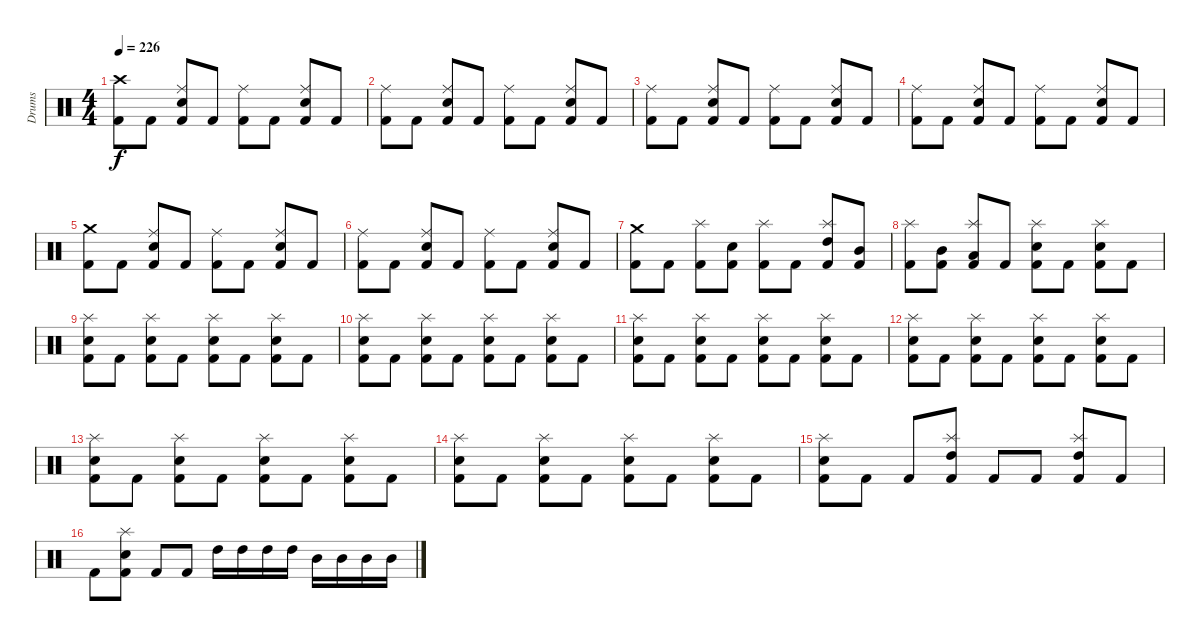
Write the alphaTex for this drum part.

\track ("Drums" "Drums") {instrument percussion}
\staff {score}
\articulation defaults
\ts (4 4)
\tempo 226
\clef neutral
\ks c
("Crash high (hit)" "Kick (hit) 2").8{dy f} "Kick (hit) 2".8 ("Ride (middle)" "Snare (hit) 2" "Kick (hit) 2").8 "Kick (hit) 2".8 ("Ride (middle)" "Kick (hit) 2").8 "Kick (hit) 2".8 ("Ride (middle)" "Snare (hit) 2" "Kick (hit) 2").8 "Kick (hit) 2".8 |
("Ride (middle)" "Kick (hit) 2").8 "Kick (hit) 2".8 ("Ride (middle)" "Snare (hit) 2" "Kick (hit) 2").8 "Kick (hit) 2".8 ("Ride (middle)" "Kick (hit) 2").8 "Kick (hit) 2".8 ("Ride (middle)" "Snare (hit) 2" "Kick (hit) 2").8 "Kick (hit) 2".8 |
("Ride (middle)" "Kick (hit) 2").8 "Kick (hit) 2".8 ("Ride (middle)" "Snare (hit) 2" "Kick (hit) 2").8 "Kick (hit) 2".8 ("Ride (middle)" "Kick (hit) 2").8 "Kick (hit) 2".8 ("Ride (middle)" "Snare (hit) 2" "Kick (hit) 2").8 "Kick (hit) 2".8 |
("Ride (middle)" "Kick (hit) 2").8 "Kick (hit) 2".8 ("Ride (middle)" "Snare (hit) 2" "Kick (hit) 2").8 "Kick (hit) 2".8 ("Ride (middle)" "Kick (hit) 2").8 "Kick (hit) 2".8 ("Ride (middle)" "Snare (hit) 2" "Kick (hit) 2").8 "Kick (hit) 2".8 |
("Crash medium (hit)" "Kick (hit) 2").8 "Kick (hit) 2".8 ("Ride (middle)" "Snare (hit) 2" "Kick (hit) 2").8 "Kick (hit) 2".8 ("Ride (middle)" "Kick (hit) 2").8 "Kick (hit) 2".8 ("Ride (middle)" "Snare (hit) 2" "Kick (hit) 2").8 "Kick (hit) 2".8 |
("Ride (middle)" "Kick (hit) 2").8 "Kick (hit) 2".8 ("Ride (middle)" "Snare (hit) 2" "Kick (hit) 2").8 "Kick (hit) 2".8 ("Ride (middle)" "Kick (hit) 2").8 "Kick (hit) 2".8 ("Ride (middle)" "Snare (hit) 2" "Kick (hit) 2").8 "Kick (hit) 2".8 |
("Crash medium (hit)" "Kick (hit) 2").8 "Kick (hit) 2".8 ("Splash (hit)" "Kick (hit) 2").8 ("Snare (hit) 2" "Kick (hit) 2").8 ("Splash (hit)" "Kick (hit) 2").8 "Kick (hit) 2".8 ("Splash (hit)" "High Tom (hit)" "Kick (hit) 2").8 ("Mid Tom (hit)" "Kick (hit) 2").8 |
("Splash (hit)" "Kick (hit) 2").8 ("Mid Tom (hit)" "Kick (hit) 2").8 ("Splash (hit)" "Low Tom (hit)" "Kick (hit) 2").8 "Kick (hit) 2".8 ("Splash (hit)" "Snare (hit) 2" "Kick (hit) 2").8 "Kick (hit) 2".8 ("Splash (hit)" "Snare (hit) 2" "Kick (hit) 2").8 "Kick (hit) 2".8 |
("Splash (hit)" "Snare (hit) 2" "Kick (hit) 2").8 "Kick (hit) 2".8 ("Splash (hit)" "Snare (hit) 2" "Kick (hit) 2").8 "Kick (hit) 2".8 ("Splash (hit)" "Snare (hit) 2" "Kick (hit) 2").8 "Kick (hit) 2".8 ("Splash (hit)" "Snare (hit) 2" "Kick (hit) 2").8 "Kick (hit) 2".8 |
("Splash (hit)" "Snare (hit) 2" "Kick (hit) 2").8 "Kick (hit) 2".8 ("Splash (hit)" "Snare (hit) 2" "Kick (hit) 2").8 "Kick (hit) 2".8 ("Splash (hit)" "Snare (hit) 2" "Kick (hit) 2").8 "Kick (hit) 2".8 ("Splash (hit)" "Snare (hit) 2" "Kick (hit) 2").8 "Kick (hit) 2".8 |
("Splash (hit)" "Snare (hit) 2" "Kick (hit) 2").8 "Kick (hit) 2".8 ("Splash (hit)" "Snare (hit) 2" "Kick (hit) 2").8 "Kick (hit) 2".8 ("Splash (hit)" "Snare (hit) 2" "Kick (hit) 2").8 "Kick (hit) 2".8 ("Splash (hit)" "Snare (hit) 2" "Kick (hit) 2").8 "Kick (hit) 2".8 |
("Splash (hit)" "Snare (hit) 2" "Kick (hit) 2").8 "Kick (hit) 2".8 ("Splash (hit)" "Snare (hit) 2" "Kick (hit) 2").8 "Kick (hit) 2".8 ("Splash (hit)" "Snare (hit) 2" "Kick (hit) 2").8 "Kick (hit) 2".8 ("Splash (hit)" "Snare (hit) 2" "Kick (hit) 2").8 "Kick (hit) 2".8 |
("Splash (hit)" "Snare (hit) 2" "Kick (hit) 2").8 "Kick (hit) 2".8 ("Splash (hit)" "Snare (hit) 2" "Kick (hit) 2").8 "Kick (hit) 2".8 ("Splash (hit)" "Snare (hit) 2" "Kick (hit) 2").8 "Kick (hit) 2".8 ("Splash (hit)" "Snare (hit) 2" "Kick (hit) 2").8 "Kick (hit) 2".8 |
("Splash (hit)" "Snare (hit) 2" "Kick (hit) 2").8 "Kick (hit) 2".8 ("Splash (hit)" "Snare (hit) 2" "Kick (hit) 2").8 "Kick (hit) 2".8 ("Splash (hit)" "Snare (hit) 2" "Kick (hit) 2").8 "Kick (hit) 2".8 ("Splash (hit)" "Snare (hit) 2" "Kick (hit) 2").8 "Kick (hit) 2".8 |
("Splash (hit)" "Snare (hit) 2" "Kick (hit) 2").8 "Kick (hit) 2".8 "Kick (hit) 2".8 ("Splash (hit)" "High Tom (hit)" "Kick (hit) 2").8 "Kick (hit) 2".8 "Kick (hit) 2".8 ("Splash (hit)" "High Tom (hit)" "Kick (hit) 2").8 "Kick (hit) 2".8 |
"Kick (hit) 2".8 ("Splash (hit)" "Snare (hit) 2" "Kick (hit) 2").8 "Kick (hit) 2".8 "Kick (hit) 2".8 "High Tom (hit)".16 "High Tom (hit)".16 "High Tom (hit)".16 "High Tom (hit)".16 "Mid Tom (hit)".16 "Mid Tom (hit)".16 "Mid Tom (hit)".16 "Mid Tom (hit)".16
